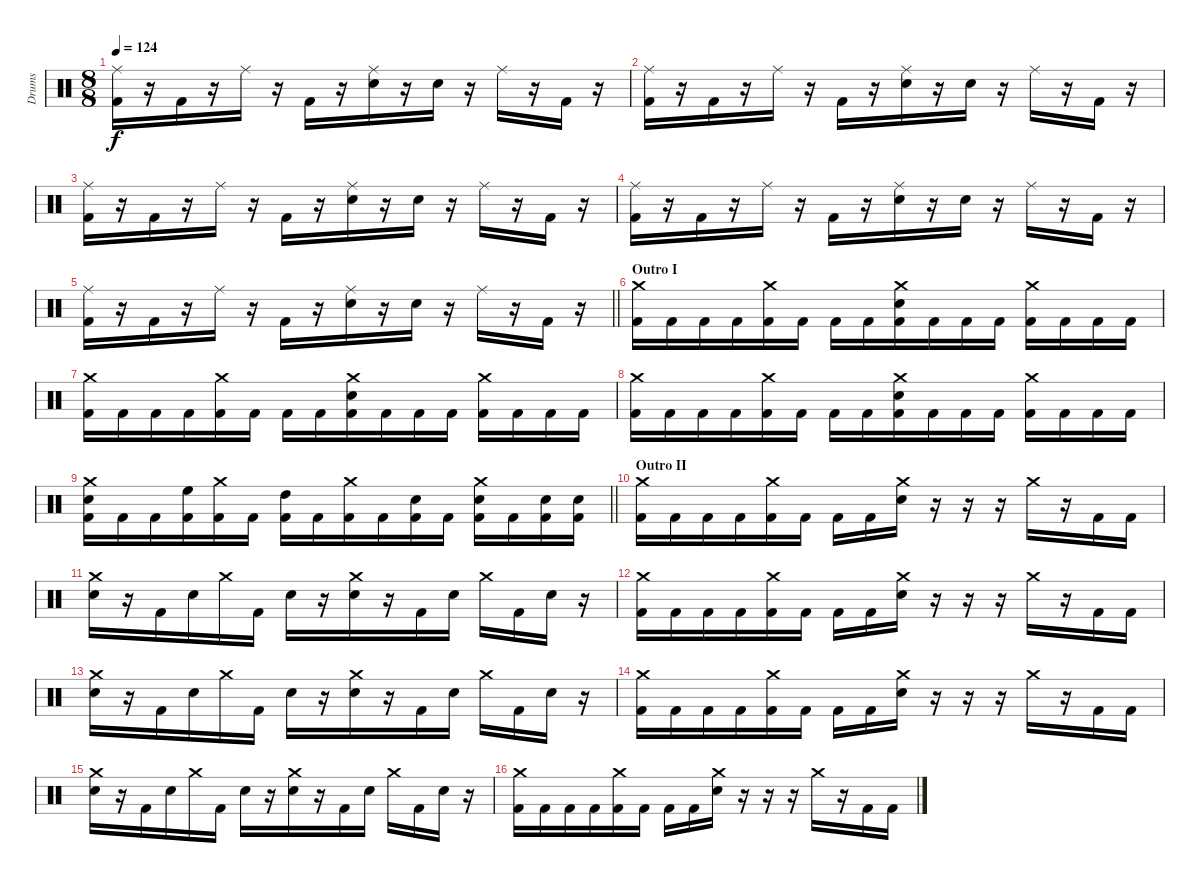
\track ("Drums" "Drums") {instrument percussion}
\staff {score}
\articulation defaults
\ts (8 8)
\tempo 124
\clef neutral
\ks c
("Ride (middle)" "Kick (hit) 2").16{dy f} r.16 "Kick (hit) 2".16 r.16 "Ride (middle)".16 r.16 "Kick (hit) 2".16 r.16 ("Ride (middle)" "Electric Snare (hit)").16 r.16 "Electric Snare (hit)".16 r.16 "Ride (middle)".16 r.16 "Kick (hit) 2".16 r.16 |
("Ride (middle)" "Kick (hit) 2").16 r.16 "Kick (hit) 2".16 r.16 "Ride (middle)".16 r.16 "Kick (hit) 2".16 r.16 ("Ride (middle)" "Electric Snare (hit)").16 r.16 "Electric Snare (hit)".16 r.16 "Ride (middle)".16 r.16 "Kick (hit) 2".16 r.16 |
("Ride (middle)" "Kick (hit) 2").16 r.16 "Kick (hit) 2".16 r.16 "Ride (middle)".16 r.16 "Kick (hit) 2".16 r.16 ("Ride (middle)" "Electric Snare (hit)").16 r.16 "Electric Snare (hit)".16 r.16 "Ride (middle)".16 r.16 "Kick (hit) 2".16 r.16 |
("Ride (middle)" "Kick (hit) 2").16 r.16 "Kick (hit) 2".16 r.16 "Ride (middle)".16 r.16 "Kick (hit) 2".16 r.16 ("Ride (middle)" "Electric Snare (hit)").16 r.16 "Electric Snare (hit)".16 r.16 "Ride (middle)".16 r.16 "Kick (hit) 2".16 r.16 |
\barLineRight lightlight
("Ride (middle)" "Kick (hit) 2").16 r.16 "Kick (hit) 2".16 r.16 "Ride (middle)".16 r.16 "Kick (hit) 2".16 r.16 ("Ride (middle)" "Electric Snare (hit)").16 r.16 "Electric Snare (hit)".16 r.16 "Ride (middle)".16 r.16 "Kick (hit) 2".16 r.16 |
\section ("" "Outro I")
("Crash medium (hit)" "Kick (hit) 2").16 "Kick (hit) 2".16 "Kick (hit) 2".16 "Kick (hit) 2".16 ("Crash medium (hit)" "Kick (hit) 2").16 "Kick (hit) 2".16 "Kick (hit) 2".16 "Kick (hit) 2".16 ("Crash medium (hit)" "Electric Snare (hit)" "Kick (hit) 2").16 "Kick (hit) 2".16 "Kick (hit) 2".16 "Kick (hit) 2".16 ("Crash medium (hit)" "Kick (hit) 2").16 "Kick (hit) 2".16 "Kick (hit) 2".16 "Kick (hit) 2".16 |
("Crash medium (hit)" "Kick (hit) 2").16 "Kick (hit) 2".16 "Kick (hit) 2".16 "Kick (hit) 2".16 ("Crash medium (hit)" "Kick (hit) 2").16 "Kick (hit) 2".16 "Kick (hit) 2".16 "Kick (hit) 2".16 ("Crash medium (hit)" "Electric Snare (hit)" "Kick (hit) 2").16 "Kick (hit) 2".16 "Kick (hit) 2".16 "Kick (hit) 2".16 ("Crash medium (hit)" "Kick (hit) 2").16 "Kick (hit) 2".16 "Kick (hit) 2".16 "Kick (hit) 2".16 |
("Crash medium (hit)" "Kick (hit) 2").16 "Kick (hit) 2".16 "Kick (hit) 2".16 "Kick (hit) 2".16 ("Crash medium (hit)" "Kick (hit) 2").16 "Kick (hit) 2".16 "Kick (hit) 2".16 "Kick (hit) 2".16 ("Crash medium (hit)" "Electric Snare (hit)" "Kick (hit) 2").16 "Kick (hit) 2".16 "Kick (hit) 2".16 "Kick (hit) 2".16 ("Crash medium (hit)" "Kick (hit) 2").16 "Kick (hit) 2".16 "Kick (hit) 2".16 "Kick (hit) 2".16 |
\barLineRight lightlight
("Crash medium (hit)" "Electric Snare (hit)" "Kick (hit) 2").16 "Kick (hit) 2".16 "Kick (hit) 2".16 ("High Floor Tom (hit)" "Kick (hit) 2").16 ("Crash medium (hit)" "Kick (hit) 2").16 "Kick (hit) 2".16 ("High Tom (hit)" "Kick (hit) 2").16 "Kick (hit) 2".16 ("Crash medium (hit)" "Kick (hit) 2").16 "Kick (hit) 2".16 ("Electric Snare (hit)" "Kick (hit) 2").16 "Kick (hit) 2".16 ("Crash medium (hit)" "Electric Snare (hit)" "Kick (hit) 2").16 "Kick (hit) 2".16 ("Electric Snare (hit)" "Kick (hit) 2").16 ("Electric Snare (hit)" "Kick (hit) 2").16 |
\section ("" "Outro II")
("Crash medium (hit)" "Kick (hit) 2").16 "Kick (hit) 2".16 "Kick (hit) 2".16 "Kick (hit) 2".16 ("Crash medium (hit)" "Kick (hit) 2").16 "Kick (hit) 2".16 "Kick (hit) 2".16 "Kick (hit) 2".16 ("Crash medium (hit)" "Electric Snare (hit)").16 r.16 r.16 r.16 "Crash medium (hit)".16 r.16 "Kick (hit) 2".16 "Kick (hit) 2".16 |
("Crash medium (hit)" "Electric Snare (hit)").16 r.16 "Kick (hit) 2".16 "Electric Snare (hit)".16 "Crash medium (hit)".16 "Kick (hit) 2".16 "Electric Snare (hit)".16 r.16 ("Crash medium (hit)" "Electric Snare (hit)").16 r.16 "Kick (hit) 2".16 "Electric Snare (hit)".16 "Crash medium (hit)".16 "Kick (hit) 2".16 "Electric Snare (hit)".16 r.16 |
("Crash medium (hit)" "Kick (hit) 2").16 "Kick (hit) 2".16 "Kick (hit) 2".16 "Kick (hit) 2".16 ("Crash medium (hit)" "Kick (hit) 2").16 "Kick (hit) 2".16 "Kick (hit) 2".16 "Kick (hit) 2".16 ("Crash medium (hit)" "Electric Snare (hit)").16 r.16 r.16 r.16 "Crash medium (hit)".16 r.16 "Kick (hit) 2".16 "Kick (hit) 2".16 |
("Crash medium (hit)" "Electric Snare (hit)").16 r.16 "Kick (hit) 2".16 "Electric Snare (hit)".16 "Crash medium (hit)".16 "Kick (hit) 2".16 "Electric Snare (hit)".16 r.16 ("Crash medium (hit)" "Electric Snare (hit)").16 r.16 "Kick (hit) 2".16 "Electric Snare (hit)".16 "Crash medium (hit)".16 "Kick (hit) 2".16 "Electric Snare (hit)".16 r.16 |
("Crash medium (hit)" "Kick (hit) 2").16 "Kick (hit) 2".16 "Kick (hit) 2".16 "Kick (hit) 2".16 ("Crash medium (hit)" "Kick (hit) 2").16 "Kick (hit) 2".16 "Kick (hit) 2".16 "Kick (hit) 2".16 ("Crash medium (hit)" "Electric Snare (hit)").16 r.16 r.16 r.16 "Crash medium (hit)".16 r.16 "Kick (hit) 2".16 "Kick (hit) 2".16 |
("Crash medium (hit)" "Electric Snare (hit)").16 r.16 "Kick (hit) 2".16 "Electric Snare (hit)".16 "Crash medium (hit)".16 "Kick (hit) 2".16 "Electric Snare (hit)".16 r.16 ("Crash medium (hit)" "Electric Snare (hit)").16 r.16 "Kick (hit) 2".16 "Electric Snare (hit)".16 "Crash medium (hit)".16 "Kick (hit) 2".16 "Electric Snare (hit)".16 r.16 |
("Crash medium (hit)" "Kick (hit) 2").16 "Kick (hit) 2".16 "Kick (hit) 2".16 "Kick (hit) 2".16 ("Crash medium (hit)" "Kick (hit) 2").16 "Kick (hit) 2".16 "Kick (hit) 2".16 "Kick (hit) 2".16 ("Crash medium (hit)" "Electric Snare (hit)").16 r.16 r.16 r.16 "Crash medium (hit)".16 r.16 "Kick (hit) 2".16 "Kick (hit) 2".16
